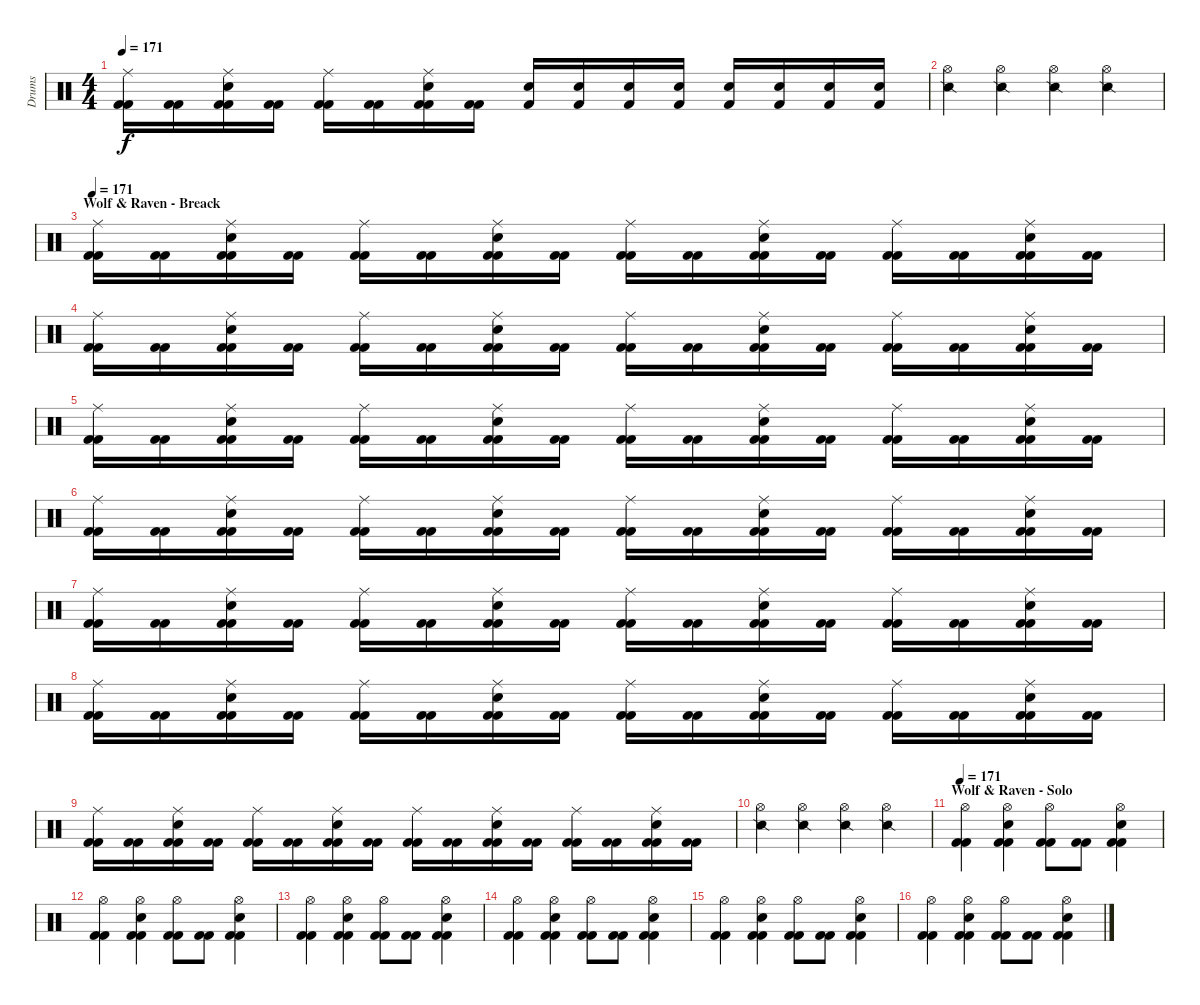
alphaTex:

\track ("Drums" "Drums") {instrument percussion}
\staff {score}
\articulation defaults
\ts (4 4)
\tempo 171
\clef neutral
\ks c
("Kick (hit) 2" "Kick (hit) 2" "Ride (middle)").16{dy f} ("Kick (hit) 2" "Kick (hit) 2").16 ("Kick (hit) 2" "Kick (hit) 2" "Electric Snare (hit)" "Ride (middle)").16 ("Kick (hit) 2" "Kick (hit) 2").16 ("Kick (hit) 2" "Kick (hit) 2" "Ride (middle)").16 ("Kick (hit) 2" "Kick (hit) 2").16 ("Kick (hit) 2" "Kick (hit) 2" "Electric Snare (hit)" "Ride (middle)").16 ("Kick (hit) 2" "Kick (hit) 2").16 ("Kick (hit) 2" "Electric Snare (hit)").16 ("Kick (hit) 2" "Electric Snare (hit)").16 ("Kick (hit) 2" "Electric Snare (hit)").16 ("Kick (hit) 2" "Electric Snare (hit)").16 ("Kick (hit) 2" "Electric Snare (hit)").16 ("Kick (hit) 2" "Electric Snare (hit)").16 ("Kick (hit) 2" "Electric Snare (hit)").16 ("Kick (hit) 2" "Electric Snare (hit)").16 |
("Snare (side stick) 2" "Hi-Hat (open)").4 ("Snare (side stick) 2" "Hi-Hat (open)").4 ("Snare (side stick) 2" "Hi-Hat (open)").4 ("Snare (side stick) 2" "Hi-Hat (open)").4 |
\section ("" "Wolf & Raven - Breack")
\tempo 171
("Kick (hit) 2" "Kick (hit) 2" "Ride (middle)").16 ("Kick (hit) 2" "Kick (hit) 2").16 ("Kick (hit) 2" "Kick (hit) 2" "Electric Snare (hit)" "Ride (middle)").16 ("Kick (hit) 2" "Kick (hit) 2").16 ("Kick (hit) 2" "Kick (hit) 2" "Ride (middle)").16 ("Kick (hit) 2" "Kick (hit) 2").16 ("Kick (hit) 2" "Kick (hit) 2" "Electric Snare (hit)" "Ride (middle)").16 ("Kick (hit) 2" "Kick (hit) 2").16 ("Kick (hit) 2" "Kick (hit) 2" "Ride (middle)").16 ("Kick (hit) 2" "Kick (hit) 2").16 ("Kick (hit) 2" "Kick (hit) 2" "Electric Snare (hit)" "Ride (middle)").16 ("Kick (hit) 2" "Kick (hit) 2").16 ("Kick (hit) 2" "Kick (hit) 2" "Ride (middle)").16 ("Kick (hit) 2" "Kick (hit) 2").16 ("Kick (hit) 2" "Kick (hit) 2" "Electric Snare (hit)" "Ride (middle)").16 ("Kick (hit) 2" "Kick (hit) 2").16 |
("Kick (hit) 2" "Kick (hit) 2" "Ride (middle)").16 ("Kick (hit) 2" "Kick (hit) 2").16 ("Kick (hit) 2" "Kick (hit) 2" "Electric Snare (hit)" "Ride (middle)").16 ("Kick (hit) 2" "Kick (hit) 2").16 ("Kick (hit) 2" "Kick (hit) 2" "Ride (middle)").16 ("Kick (hit) 2" "Kick (hit) 2").16 ("Kick (hit) 2" "Kick (hit) 2" "Electric Snare (hit)" "Ride (middle)").16 ("Kick (hit) 2" "Kick (hit) 2").16 ("Kick (hit) 2" "Kick (hit) 2" "Ride (middle)").16 ("Kick (hit) 2" "Kick (hit) 2").16 ("Kick (hit) 2" "Kick (hit) 2" "Electric Snare (hit)" "Ride (middle)").16 ("Kick (hit) 2" "Kick (hit) 2").16 ("Kick (hit) 2" "Kick (hit) 2" "Ride (middle)").16 ("Kick (hit) 2" "Kick (hit) 2").16 ("Kick (hit) 2" "Kick (hit) 2" "Electric Snare (hit)" "Ride (middle)").16 ("Kick (hit) 2" "Kick (hit) 2").16 |
("Kick (hit) 2" "Kick (hit) 2" "Ride (middle)").16 ("Kick (hit) 2" "Kick (hit) 2").16 ("Kick (hit) 2" "Kick (hit) 2" "Electric Snare (hit)" "Ride (middle)").16 ("Kick (hit) 2" "Kick (hit) 2").16 ("Kick (hit) 2" "Kick (hit) 2" "Ride (middle)").16 ("Kick (hit) 2" "Kick (hit) 2").16 ("Kick (hit) 2" "Kick (hit) 2" "Electric Snare (hit)" "Ride (middle)").16 ("Kick (hit) 2" "Kick (hit) 2").16 ("Kick (hit) 2" "Kick (hit) 2" "Ride (middle)").16 ("Kick (hit) 2" "Kick (hit) 2").16 ("Kick (hit) 2" "Kick (hit) 2" "Electric Snare (hit)" "Ride (middle)").16 ("Kick (hit) 2" "Kick (hit) 2").16 ("Kick (hit) 2" "Kick (hit) 2" "Ride (middle)").16 ("Kick (hit) 2" "Kick (hit) 2").16 ("Kick (hit) 2" "Kick (hit) 2" "Electric Snare (hit)" "Ride (middle)").16 ("Kick (hit) 2" "Kick (hit) 2").16 |
("Kick (hit) 2" "Kick (hit) 2" "Ride (middle)").16 ("Kick (hit) 2" "Kick (hit) 2").16 ("Kick (hit) 2" "Kick (hit) 2" "Electric Snare (hit)" "Ride (middle)").16 ("Kick (hit) 2" "Kick (hit) 2").16 ("Kick (hit) 2" "Kick (hit) 2" "Ride (middle)").16 ("Kick (hit) 2" "Kick (hit) 2").16 ("Kick (hit) 2" "Kick (hit) 2" "Electric Snare (hit)" "Ride (middle)").16 ("Kick (hit) 2" "Kick (hit) 2").16 ("Kick (hit) 2" "Kick (hit) 2" "Ride (middle)").16 ("Kick (hit) 2" "Kick (hit) 2").16 ("Kick (hit) 2" "Kick (hit) 2" "Electric Snare (hit)" "Ride (middle)").16 ("Kick (hit) 2" "Kick (hit) 2").16 ("Kick (hit) 2" "Kick (hit) 2" "Ride (middle)").16 ("Kick (hit) 2" "Kick (hit) 2").16 ("Kick (hit) 2" "Kick (hit) 2" "Electric Snare (hit)" "Ride (middle)").16 ("Kick (hit) 2" "Kick (hit) 2").16 |
("Kick (hit) 2" "Kick (hit) 2" "Ride (middle)").16 ("Kick (hit) 2" "Kick (hit) 2").16 ("Kick (hit) 2" "Kick (hit) 2" "Electric Snare (hit)" "Ride (middle)").16 ("Kick (hit) 2" "Kick (hit) 2").16 ("Kick (hit) 2" "Kick (hit) 2" "Ride (middle)").16 ("Kick (hit) 2" "Kick (hit) 2").16 ("Kick (hit) 2" "Kick (hit) 2" "Electric Snare (hit)" "Ride (middle)").16 ("Kick (hit) 2" "Kick (hit) 2").16 ("Kick (hit) 2" "Kick (hit) 2" "Ride (middle)").16 ("Kick (hit) 2" "Kick (hit) 2").16 ("Kick (hit) 2" "Kick (hit) 2" "Electric Snare (hit)" "Ride (middle)").16 ("Kick (hit) 2" "Kick (hit) 2").16 ("Kick (hit) 2" "Kick (hit) 2" "Ride (middle)").16 ("Kick (hit) 2" "Kick (hit) 2").16 ("Kick (hit) 2" "Kick (hit) 2" "Electric Snare (hit)" "Ride (middle)").16 ("Kick (hit) 2" "Kick (hit) 2").16 |
("Kick (hit) 2" "Kick (hit) 2" "Ride (middle)").16 ("Kick (hit) 2" "Kick (hit) 2").16 ("Kick (hit) 2" "Kick (hit) 2" "Electric Snare (hit)" "Ride (middle)").16 ("Kick (hit) 2" "Kick (hit) 2").16 ("Kick (hit) 2" "Kick (hit) 2" "Ride (middle)").16 ("Kick (hit) 2" "Kick (hit) 2").16 ("Kick (hit) 2" "Kick (hit) 2" "Electric Snare (hit)" "Ride (middle)").16 ("Kick (hit) 2" "Kick (hit) 2").16 ("Kick (hit) 2" "Kick (hit) 2" "Ride (middle)").16 ("Kick (hit) 2" "Kick (hit) 2").16 ("Kick (hit) 2" "Kick (hit) 2" "Electric Snare (hit)" "Ride (middle)").16 ("Kick (hit) 2" "Kick (hit) 2").16 ("Kick (hit) 2" "Kick (hit) 2" "Ride (middle)").16 ("Kick (hit) 2" "Kick (hit) 2").16 ("Kick (hit) 2" "Kick (hit) 2" "Electric Snare (hit)" "Ride (middle)").16 ("Kick (hit) 2" "Kick (hit) 2").16 |
("Kick (hit) 2" "Kick (hit) 2" "Ride (middle)").16 ("Kick (hit) 2" "Kick (hit) 2").16 ("Kick (hit) 2" "Kick (hit) 2" "Electric Snare (hit)" "Ride (middle)").16 ("Kick (hit) 2" "Kick (hit) 2").16 ("Kick (hit) 2" "Kick (hit) 2" "Ride (middle)").16 ("Kick (hit) 2" "Kick (hit) 2").16 ("Kick (hit) 2" "Kick (hit) 2" "Electric Snare (hit)" "Ride (middle)").16 ("Kick (hit) 2" "Kick (hit) 2").16 ("Kick (hit) 2" "Kick (hit) 2" "Ride (middle)").16 ("Kick (hit) 2" "Kick (hit) 2").16 ("Kick (hit) 2" "Kick (hit) 2" "Electric Snare (hit)" "Ride (middle)").16 ("Kick (hit) 2" "Kick (hit) 2").16 ("Kick (hit) 2" "Kick (hit) 2" "Ride (middle)").16 ("Kick (hit) 2" "Kick (hit) 2").16 ("Kick (hit) 2" "Kick (hit) 2" "Electric Snare (hit)" "Ride (middle)").16 ("Kick (hit) 2" "Kick (hit) 2").16 |
("Snare (side stick) 2" "Hi-Hat (open)").4 ("Snare (side stick) 2" "Hi-Hat (open)").4 ("Snare (side stick) 2" "Hi-Hat (open)").4 ("Snare (side stick) 2" "Hi-Hat (open)").4 |
\section ("" "Wolf & Raven - Solo")
\tempo 171
("Kick (hit) 2" "Kick (hit) 2" "Hi-Hat (open)").4 ("Kick (hit) 2" "Kick (hit) 2" "Electric Snare (hit)" "Hi-Hat (open)").4 ("Kick (hit) 2" "Kick (hit) 2" "Hi-Hat (open)").8 ("Kick (hit) 2" "Kick (hit) 2").8 ("Kick (hit) 2" "Kick (hit) 2" "Electric Snare (hit)" "Hi-Hat (open)").4 |
("Kick (hit) 2" "Kick (hit) 2" "Hi-Hat (open)").4 ("Kick (hit) 2" "Kick (hit) 2" "Electric Snare (hit)" "Hi-Hat (open)").4 ("Kick (hit) 2" "Kick (hit) 2" "Hi-Hat (open)").8 ("Kick (hit) 2" "Kick (hit) 2").8 ("Kick (hit) 2" "Kick (hit) 2" "Electric Snare (hit)" "Hi-Hat (open)").4 |
("Kick (hit) 2" "Kick (hit) 2" "Hi-Hat (open)").4 ("Kick (hit) 2" "Kick (hit) 2" "Electric Snare (hit)" "Hi-Hat (open)").4 ("Kick (hit) 2" "Kick (hit) 2" "Hi-Hat (open)").8 ("Kick (hit) 2" "Kick (hit) 2").8 ("Kick (hit) 2" "Kick (hit) 2" "Electric Snare (hit)" "Hi-Hat (open)").4 |
("Kick (hit) 2" "Kick (hit) 2" "Hi-Hat (open)").4 ("Kick (hit) 2" "Kick (hit) 2" "Electric Snare (hit)" "Hi-Hat (open)").4 ("Kick (hit) 2" "Kick (hit) 2" "Hi-Hat (open)").8 ("Kick (hit) 2" "Kick (hit) 2").8 ("Kick (hit) 2" "Kick (hit) 2" "Electric Snare (hit)" "Hi-Hat (open)").4 |
("Kick (hit) 2" "Kick (hit) 2" "Hi-Hat (open)").4 ("Kick (hit) 2" "Kick (hit) 2" "Electric Snare (hit)" "Hi-Hat (open)").4 ("Kick (hit) 2" "Kick (hit) 2" "Hi-Hat (open)").8 ("Kick (hit) 2" "Kick (hit) 2").8 ("Kick (hit) 2" "Kick (hit) 2" "Electric Snare (hit)" "Hi-Hat (open)").4 |
("Kick (hit) 2" "Kick (hit) 2" "Hi-Hat (open)").4 ("Kick (hit) 2" "Kick (hit) 2" "Electric Snare (hit)" "Hi-Hat (open)").4 ("Kick (hit) 2" "Kick (hit) 2" "Hi-Hat (open)").8 ("Kick (hit) 2" "Kick (hit) 2").8 ("Kick (hit) 2" "Kick (hit) 2" "Electric Snare (hit)" "Hi-Hat (open)").4
